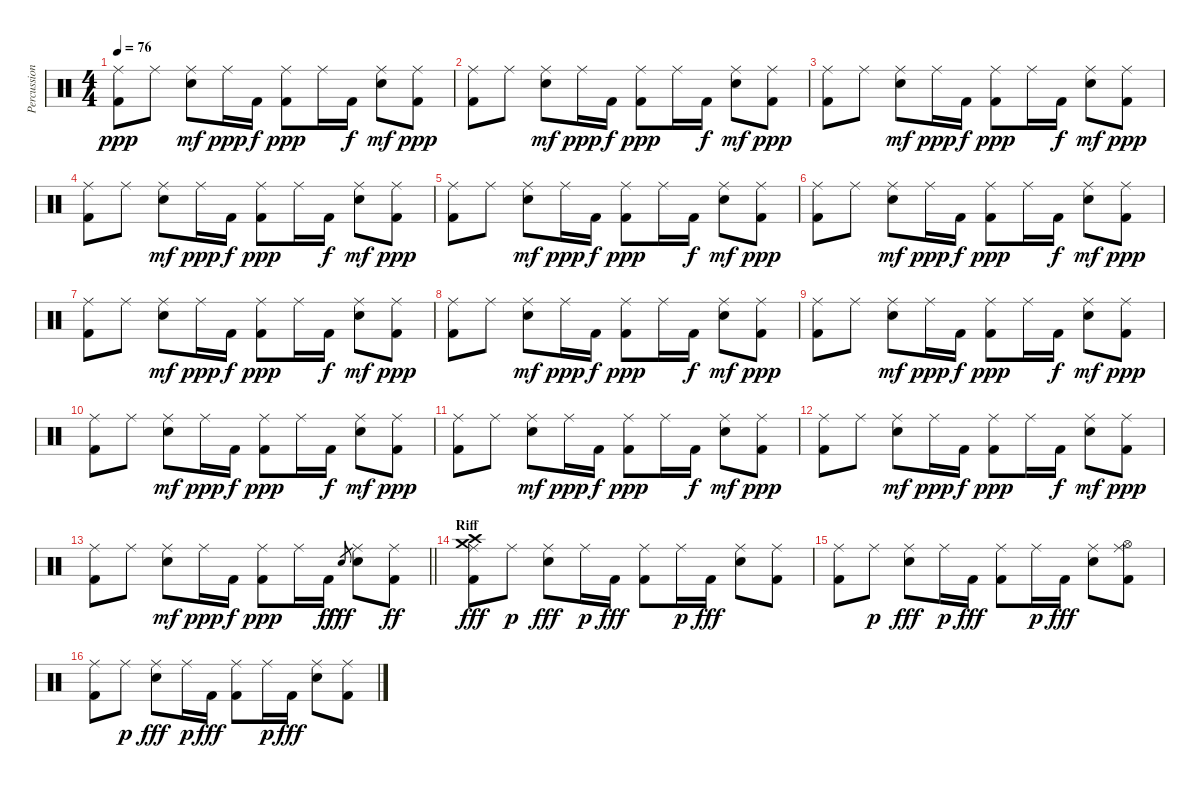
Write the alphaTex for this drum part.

\track ("Percussions" "Percussion") {instrument percussion}
\staff {score}
\articulation defaults
\ts (4 4)
\tempo 76
\clef neutral
\ks c
("Ride (middle)" "Kick (hit) 2").8{dy ppp} "Ride (middle)".8 ("Ride (middle)" "Electric Snare (hit)").8{dy mf} "Ride (middle)".16{dy ppp} "Kick (hit) 2".16{dy f} ("Ride (middle)" "Kick (hit) 2").8{dy ppp} "Ride (middle)".16 "Kick (hit) 2".16{dy f} ("Ride (middle)" "Electric Snare (hit)").8{dy mf} ("Ride (middle)" "Kick (hit) 2").8{dy ppp} |
("Ride (middle)" "Kick (hit) 2").8 "Ride (middle)".8 ("Ride (middle)" "Electric Snare (hit)").8{dy mf} "Ride (middle)".16{dy ppp} "Kick (hit) 2".16{dy f} ("Ride (middle)" "Kick (hit) 2").8{dy ppp} "Ride (middle)".16 "Kick (hit) 2".16{dy f} ("Ride (middle)" "Electric Snare (hit)").8{dy mf} ("Ride (middle)" "Kick (hit) 2").8{dy ppp} |
("Ride (middle)" "Kick (hit) 2").8 "Ride (middle)".8 ("Ride (middle)" "Electric Snare (hit)").8{dy mf} "Ride (middle)".16{dy ppp} "Kick (hit) 2".16{dy f} ("Ride (middle)" "Kick (hit) 2").8{dy ppp} "Ride (middle)".16 "Kick (hit) 2".16{dy f} ("Ride (middle)" "Electric Snare (hit)").8{dy mf} ("Ride (middle)" "Kick (hit) 2").8{dy ppp} |
("Ride (middle)" "Kick (hit) 2").8 "Ride (middle)".8 ("Ride (middle)" "Electric Snare (hit)").8{dy mf} "Ride (middle)".16{dy ppp} "Kick (hit) 2".16{dy f} ("Ride (middle)" "Kick (hit) 2").8{dy ppp} "Ride (middle)".16 "Kick (hit) 2".16{dy f} ("Ride (middle)" "Electric Snare (hit)").8{dy mf} ("Ride (middle)" "Kick (hit) 2").8{dy ppp} |
("Ride (middle)" "Kick (hit) 2").8 "Ride (middle)".8 ("Ride (middle)" "Electric Snare (hit)").8{dy mf} "Ride (middle)".16{dy ppp} "Kick (hit) 2".16{dy f} ("Ride (middle)" "Kick (hit) 2").8{dy ppp} "Ride (middle)".16 "Kick (hit) 2".16{dy f} ("Ride (middle)" "Electric Snare (hit)").8{dy mf} ("Ride (middle)" "Kick (hit) 2").8{dy ppp} |
("Ride (middle)" "Kick (hit) 2").8 "Ride (middle)".8 ("Ride (middle)" "Electric Snare (hit)").8{dy mf} "Ride (middle)".16{dy ppp} "Kick (hit) 2".16{dy f} ("Ride (middle)" "Kick (hit) 2").8{dy ppp} "Ride (middle)".16 "Kick (hit) 2".16{dy f} ("Ride (middle)" "Electric Snare (hit)").8{dy mf} ("Ride (middle)" "Kick (hit) 2").8{dy ppp} |
("Ride (middle)" "Kick (hit) 2").8 "Ride (middle)".8 ("Ride (middle)" "Electric Snare (hit)").8{dy mf} "Ride (middle)".16{dy ppp} "Kick (hit) 2".16{dy f} ("Ride (middle)" "Kick (hit) 2").8{dy ppp} "Ride (middle)".16 "Kick (hit) 2".16{dy f} ("Ride (middle)" "Electric Snare (hit)").8{dy mf} ("Ride (middle)" "Kick (hit) 2").8{dy ppp} |
("Ride (middle)" "Kick (hit) 2").8 "Ride (middle)".8 ("Ride (middle)" "Electric Snare (hit)").8{dy mf} "Ride (middle)".16{dy ppp} "Kick (hit) 2".16{dy f} ("Ride (middle)" "Kick (hit) 2").8{dy ppp} "Ride (middle)".16 "Kick (hit) 2".16{dy f} ("Ride (middle)" "Electric Snare (hit)").8{dy mf} ("Ride (middle)" "Kick (hit) 2").8{dy ppp} |
("Ride (middle)" "Kick (hit) 2").8 "Ride (middle)".8 ("Ride (middle)" "Electric Snare (hit)").8{dy mf} "Ride (middle)".16{dy ppp} "Kick (hit) 2".16{dy f} ("Ride (middle)" "Kick (hit) 2").8{dy ppp} "Ride (middle)".16 "Kick (hit) 2".16{dy f} ("Ride (middle)" "Electric Snare (hit)").8{dy mf} ("Ride (middle)" "Kick (hit) 2").8{dy ppp} |
("Ride (middle)" "Kick (hit) 2").8 "Ride (middle)".8 ("Ride (middle)" "Electric Snare (hit)").8{dy mf} "Ride (middle)".16{dy ppp} "Kick (hit) 2".16{dy f} ("Ride (middle)" "Kick (hit) 2").8{dy ppp} "Ride (middle)".16 "Kick (hit) 2".16{dy f} ("Ride (middle)" "Electric Snare (hit)").8{dy mf} ("Ride (middle)" "Kick (hit) 2").8{dy ppp} |
("Ride (middle)" "Kick (hit) 2").8 "Ride (middle)".8 ("Ride (middle)" "Electric Snare (hit)").8{dy mf} "Ride (middle)".16{dy ppp} "Kick (hit) 2".16{dy f} ("Ride (middle)" "Kick (hit) 2").8{dy ppp} "Ride (middle)".16 "Kick (hit) 2".16{dy f} ("Ride (middle)" "Electric Snare (hit)").8{dy mf} ("Ride (middle)" "Kick (hit) 2").8{dy ppp} |
("Ride (middle)" "Kick (hit) 2").8 "Ride (middle)".8 ("Ride (middle)" "Electric Snare (hit)").8{dy mf} "Ride (middle)".16{dy ppp} "Kick (hit) 2".16{dy f} ("Ride (middle)" "Kick (hit) 2").8{dy ppp} "Ride (middle)".16 "Kick (hit) 2".16{dy f} ("Ride (middle)" "Electric Snare (hit)").8{dy mf} ("Ride (middle)" "Kick (hit) 2").8{dy ppp} |
\barLineRight lightlight
("Ride (middle)" "Kick (hit) 2").8 "Ride (middle)".8 ("Ride (middle)" "Electric Snare (hit)").8{dy mf} "Ride (middle)".16{dy ppp} "Kick (hit) 2".16{dy f} ("Ride (middle)" "Kick (hit) 2").8{dy ppp} "Ride (middle)".16 "Kick (hit) 2".16{dy ff} "Electric Snare (hit)".8{gr dy fff} ("Ride (middle)" "Electric Snare (hit)").8 ("Ride (middle)" "Kick (hit) 2").8{dy ff} |
\section ("" "Riff")
("Ride (middle)" "Crash medium (hit)" "Crash high (hit)" "Kick (hit) 2").8{dy fff} "Ride (middle)".8{dy p} ("Ride (middle)" "Electric Snare (hit)").8{dy fff} "Ride (middle)".16{dy p} "Kick (hit) 2".16{dy fff} ("Ride (middle)" "Kick (hit) 2").8 "Ride (middle)".16{dy p} "Kick (hit) 2".16{dy fff} ("Ride (middle)" "Electric Snare (hit)").8 ("Ride (middle)" "Kick (hit) 2").8 |
("Ride (middle)" "Kick (hit) 2").8 "Ride (middle)".8{dy p} ("Ride (middle)" "Electric Snare (hit)").8{dy fff} "Ride (middle)".16{dy p} "Kick (hit) 2".16{dy fff} ("Ride (middle)" "Kick (hit) 2").8 "Ride (middle)".16{dy p} "Kick (hit) 2".16{dy fff} ("Ride (middle)" "Electric Snare (hit)").8 ("Ride (middle)" "Hi-Hat (open)" "Kick (hit) 2").8 |
("Ride (middle)" "Kick (hit) 2").8 "Ride (middle)".8{dy p} ("Ride (middle)" "Electric Snare (hit)").8{dy fff} "Ride (middle)".16{dy p} "Kick (hit) 2".16{dy fff} ("Ride (middle)" "Kick (hit) 2").8 "Ride (middle)".16{dy p} "Kick (hit) 2".16{dy fff} ("Ride (middle)" "Electric Snare (hit)").8 ("Ride (middle)" "Kick (hit) 2").8
